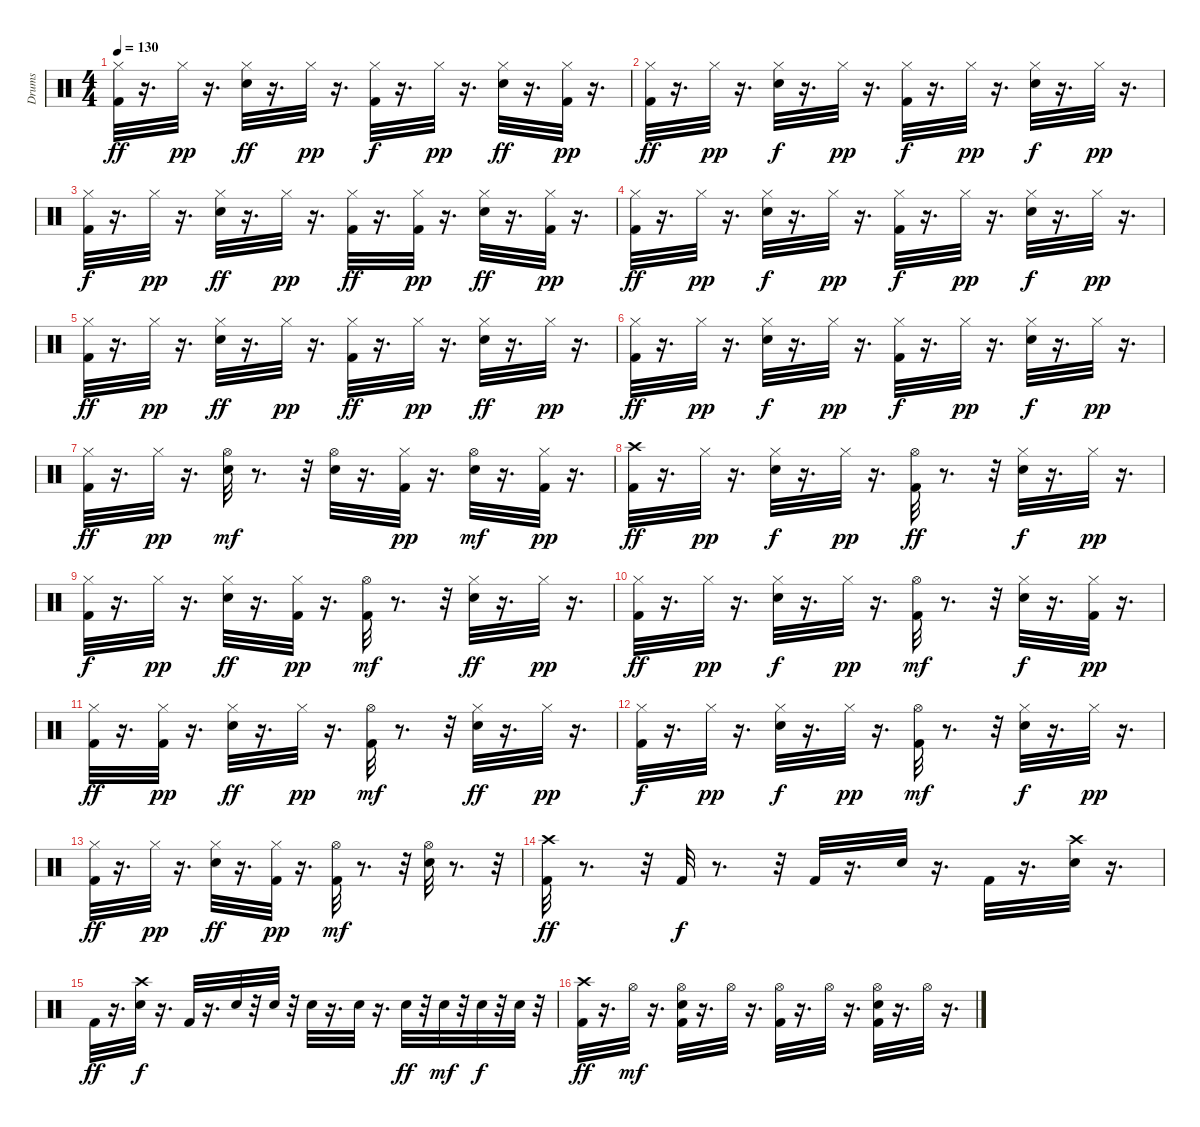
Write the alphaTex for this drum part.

\track ("Drums" "Drums") {instrument percussion}
\staff {score}
\articulation defaults
\ts (4 4)
\tempo 130
\clef neutral
\ks c
("Kick (hit) 2" "Hi-Hat (closed)").32{dy ff} r.16{d} "Hi-Hat (closed)".32{dy pp} r.16{d} ("Electric Snare (hit)" "Hi-Hat (closed)").32{dy ff} r.16{d} "Hi-Hat (closed)".32{dy pp} r.16{d} ("Kick (hit) 2" "Hi-Hat (closed)").32{dy f} r.16{d} "Hi-Hat (closed)".32{dy pp} r.16{d} ("Electric Snare (hit)" "Hi-Hat (closed)").32{dy ff} r.16{d} ("Kick (hit) 2" "Hi-Hat (closed)").32{dy pp} r.16{d} |
("Kick (hit) 2" "Hi-Hat (closed)").32{dy ff} r.16{d} "Hi-Hat (closed)".32{dy pp} r.16{d} ("Electric Snare (hit)" "Hi-Hat (closed)").32{dy f} r.16{d} "Hi-Hat (closed)".32{dy pp} r.16{d} ("Kick (hit) 2" "Hi-Hat (closed)").32{dy f} r.16{d} "Hi-Hat (closed)".32{dy pp} r.16{d} ("Electric Snare (hit)" "Hi-Hat (closed)").32{dy f} r.16{d} "Hi-Hat (closed)".32{dy pp} r.16{d} |
("Kick (hit) 2" "Hi-Hat (closed)").32{dy f} r.16{d} "Hi-Hat (closed)".32{dy pp} r.16{d} ("Electric Snare (hit)" "Hi-Hat (closed)").32{dy ff} r.16{d} "Hi-Hat (closed)".32{dy pp} r.16{d} ("Kick (hit) 2" "Hi-Hat (closed)").32{dy ff} r.16{d} ("Kick (hit) 2" "Hi-Hat (closed)").32{dy pp} r.16{d} ("Electric Snare (hit)" "Hi-Hat (closed)").32{dy ff} r.16{d} ("Kick (hit) 2" "Hi-Hat (closed)").32{dy pp} r.16{d} |
("Kick (hit) 2" "Hi-Hat (closed)").32{dy ff} r.16{d} "Hi-Hat (closed)".32{dy pp} r.16{d} ("Electric Snare (hit)" "Hi-Hat (closed)").32{dy f} r.16{d} "Hi-Hat (closed)".32{dy pp} r.16{d} ("Kick (hit) 2" "Hi-Hat (closed)").32{dy f} r.16{d} "Hi-Hat (closed)".32{dy pp} r.16{d} ("Electric Snare (hit)" "Hi-Hat (closed)").32{dy f} r.16{d} "Hi-Hat (closed)".32{dy pp} r.16{d} |
("Kick (hit) 2" "Hi-Hat (closed)").32{dy ff} r.16{d} "Hi-Hat (closed)".32{dy pp} r.16{d} ("Electric Snare (hit)" "Hi-Hat (closed)").32{dy ff} r.16{d} "Hi-Hat (closed)".32{dy pp} r.16{d} ("Kick (hit) 2" "Hi-Hat (closed)").32{dy ff} r.16{d} "Hi-Hat (closed)".32{dy pp} r.16{d} ("Electric Snare (hit)" "Hi-Hat (closed)").32{dy ff} r.16{d} "Hi-Hat (closed)".32{dy pp} r.16{d} |
("Kick (hit) 2" "Hi-Hat (closed)").32{dy ff} r.16{d} "Hi-Hat (closed)".32{dy pp} r.16{d} ("Electric Snare (hit)" "Hi-Hat (closed)").32{dy f} r.16{d} "Hi-Hat (closed)".32{dy pp} r.16{d} ("Kick (hit) 2" "Hi-Hat (closed)").32{dy f} r.16{d} "Hi-Hat (closed)".32{dy pp} r.16{d} ("Electric Snare (hit)" "Hi-Hat (closed)").32{dy f} r.16{d} "Hi-Hat (closed)".32{dy pp} r.16{d} |
("Kick (hit) 2" "Hi-Hat (closed)").32{dy ff} r.16{d} "Hi-Hat (closed)".32{dy pp} r.16{d} ("Electric Snare (hit)" "Hi-Hat (open)").32{dy mf} r.8{d} r.32 ("Electric Snare (hit)" "Hi-Hat (open)").32 r.16{d} ("Kick (hit) 2" "Hi-Hat (closed)").32{dy pp} r.16{d} ("Electric Snare (hit)" "Hi-Hat (open)").32{dy mf} r.16{d} ("Kick (hit) 2" "Hi-Hat (closed)").32{dy pp} r.16{d} |
("Kick (hit) 2" "Crash high (hit)").32{dy ff} r.16{d} "Hi-Hat (closed)".32{dy pp} r.16{d} ("Electric Snare (hit)" "Hi-Hat (closed)").32{dy f} r.16{d} "Hi-Hat (closed)".32{dy pp} r.16{d} ("Kick (hit) 2" "Hi-Hat (open)").32{dy ff} r.8{d} r.32 ("Electric Snare (hit)" "Hi-Hat (closed)").32{dy f} r.16{d} "Hi-Hat (closed)".32{dy pp} r.16{d} |
("Kick (hit) 2" "Hi-Hat (closed)").32{dy f} r.16{d} "Hi-Hat (closed)".32{dy pp} r.16{d} ("Electric Snare (hit)" "Hi-Hat (closed)").32{dy ff} r.16{d} ("Kick (hit) 2" "Hi-Hat (closed)").32{dy pp} r.16{d} ("Kick (hit) 2" "Hi-Hat (open)").32{dy mf} r.8{d} r.32 ("Electric Snare (hit)" "Hi-Hat (closed)").32{dy ff} r.16{d} "Hi-Hat (closed)".32{dy pp} r.16{d} |
("Kick (hit) 2" "Hi-Hat (closed)").32{dy ff} r.16{d} "Hi-Hat (closed)".32{dy pp} r.16{d} ("Electric Snare (hit)" "Hi-Hat (closed)").32{dy f} r.16{d} "Hi-Hat (closed)".32{dy pp} r.16{d} ("Kick (hit) 2" "Hi-Hat (open)").32{dy mf} r.8{d} r.32 ("Electric Snare (hit)" "Hi-Hat (closed)").32{dy f} r.16{d} ("Kick (hit) 2" "Hi-Hat (closed)").32{dy pp} r.16{d} |
("Kick (hit) 2" "Hi-Hat (closed)").32{dy ff} r.16{d} ("Kick (hit) 2" "Hi-Hat (closed)").32{dy pp} r.16{d} ("Electric Snare (hit)" "Hi-Hat (closed)").32{dy ff} r.16{d} "Hi-Hat (closed)".32{dy pp} r.16{d} ("Kick (hit) 2" "Hi-Hat (open)").32{dy mf} r.8{d} r.32 ("Electric Snare (hit)" "Hi-Hat (closed)").32{dy ff} r.16{d} "Hi-Hat (closed)".32{dy pp} r.16{d} |
("Kick (hit) 2" "Hi-Hat (closed)").32{dy f} r.16{d} "Hi-Hat (closed)".32{dy pp} r.16{d} ("Electric Snare (hit)" "Hi-Hat (closed)").32{dy f} r.16{d} "Hi-Hat (closed)".32{dy pp} r.16{d} ("Kick (hit) 2" "Hi-Hat (open)").32{dy mf} r.8{d} r.32 ("Electric Snare (hit)" "Hi-Hat (closed)").32{dy f} r.16{d} "Hi-Hat (closed)".32{dy pp} r.16{d} |
("Kick (hit) 2" "Hi-Hat (closed)").32{dy ff} r.16{d} "Hi-Hat (closed)".32{dy pp} r.16{d} ("Electric Snare (hit)" "Hi-Hat (closed)").32{dy ff} r.16{d} ("Kick (hit) 2" "Hi-Hat (closed)").32{dy pp} r.16{d} ("Kick (hit) 2" "Hi-Hat (open)").32{dy mf} r.8{d} r.32 ("Electric Snare (hit)" "Hi-Hat (open)").32 r.8{d} r.32 |
("Kick (hit) 2" "Crash high (hit)").32{dy ff} r.8{d} r.32 "Kick (hit) 2".32{dy f} r.8{d} r.32 "Kick (hit) 2".32 r.16{d} "Electric Snare (hit)".32 r.16{d} "Kick (hit) 2".32 r.16{d} ("Electric Snare (hit)" "Crash high (hit)").32 r.16{d} |
"Kick (hit) 2".32{dy ff} r.16{d} ("Electric Snare (hit)" "Crash high (hit)").32{dy f} r.16{d} "Kick (hit) 2".32 r.16{d} "Electric Snare (hit)".32 r.32 "Electric Snare (hit)".32 r.32 "Electric Snare (hit)".32 r.16{d} "Electric Snare (hit)".32 r.16{d} "Electric Snare (hit)".32{dy ff} r.32 "Electric Snare (hit)".32{dy mf} r.32 "Electric Snare (hit)".32{dy f} r.32 "Electric Snare (hit)".32 r.32 |
("Kick (hit) 2" "Crash high (hit)").32{dy ff} r.16{d} "Hi-Hat (open)".32{dy mf} r.16{d} ("Kick (hit) 2" "Electric Snare (hit)" "Hi-Hat (open)").32 r.16{d} "Hi-Hat (open)".32 r.16{d} ("Kick (hit) 2" "Hi-Hat (open)").32 r.16{d} "Hi-Hat (open)".32 r.16{d} ("Kick (hit) 2" "Electric Snare (hit)" "Hi-Hat (open)").32 r.16{d} "Hi-Hat (open)".32 r.16{d}
